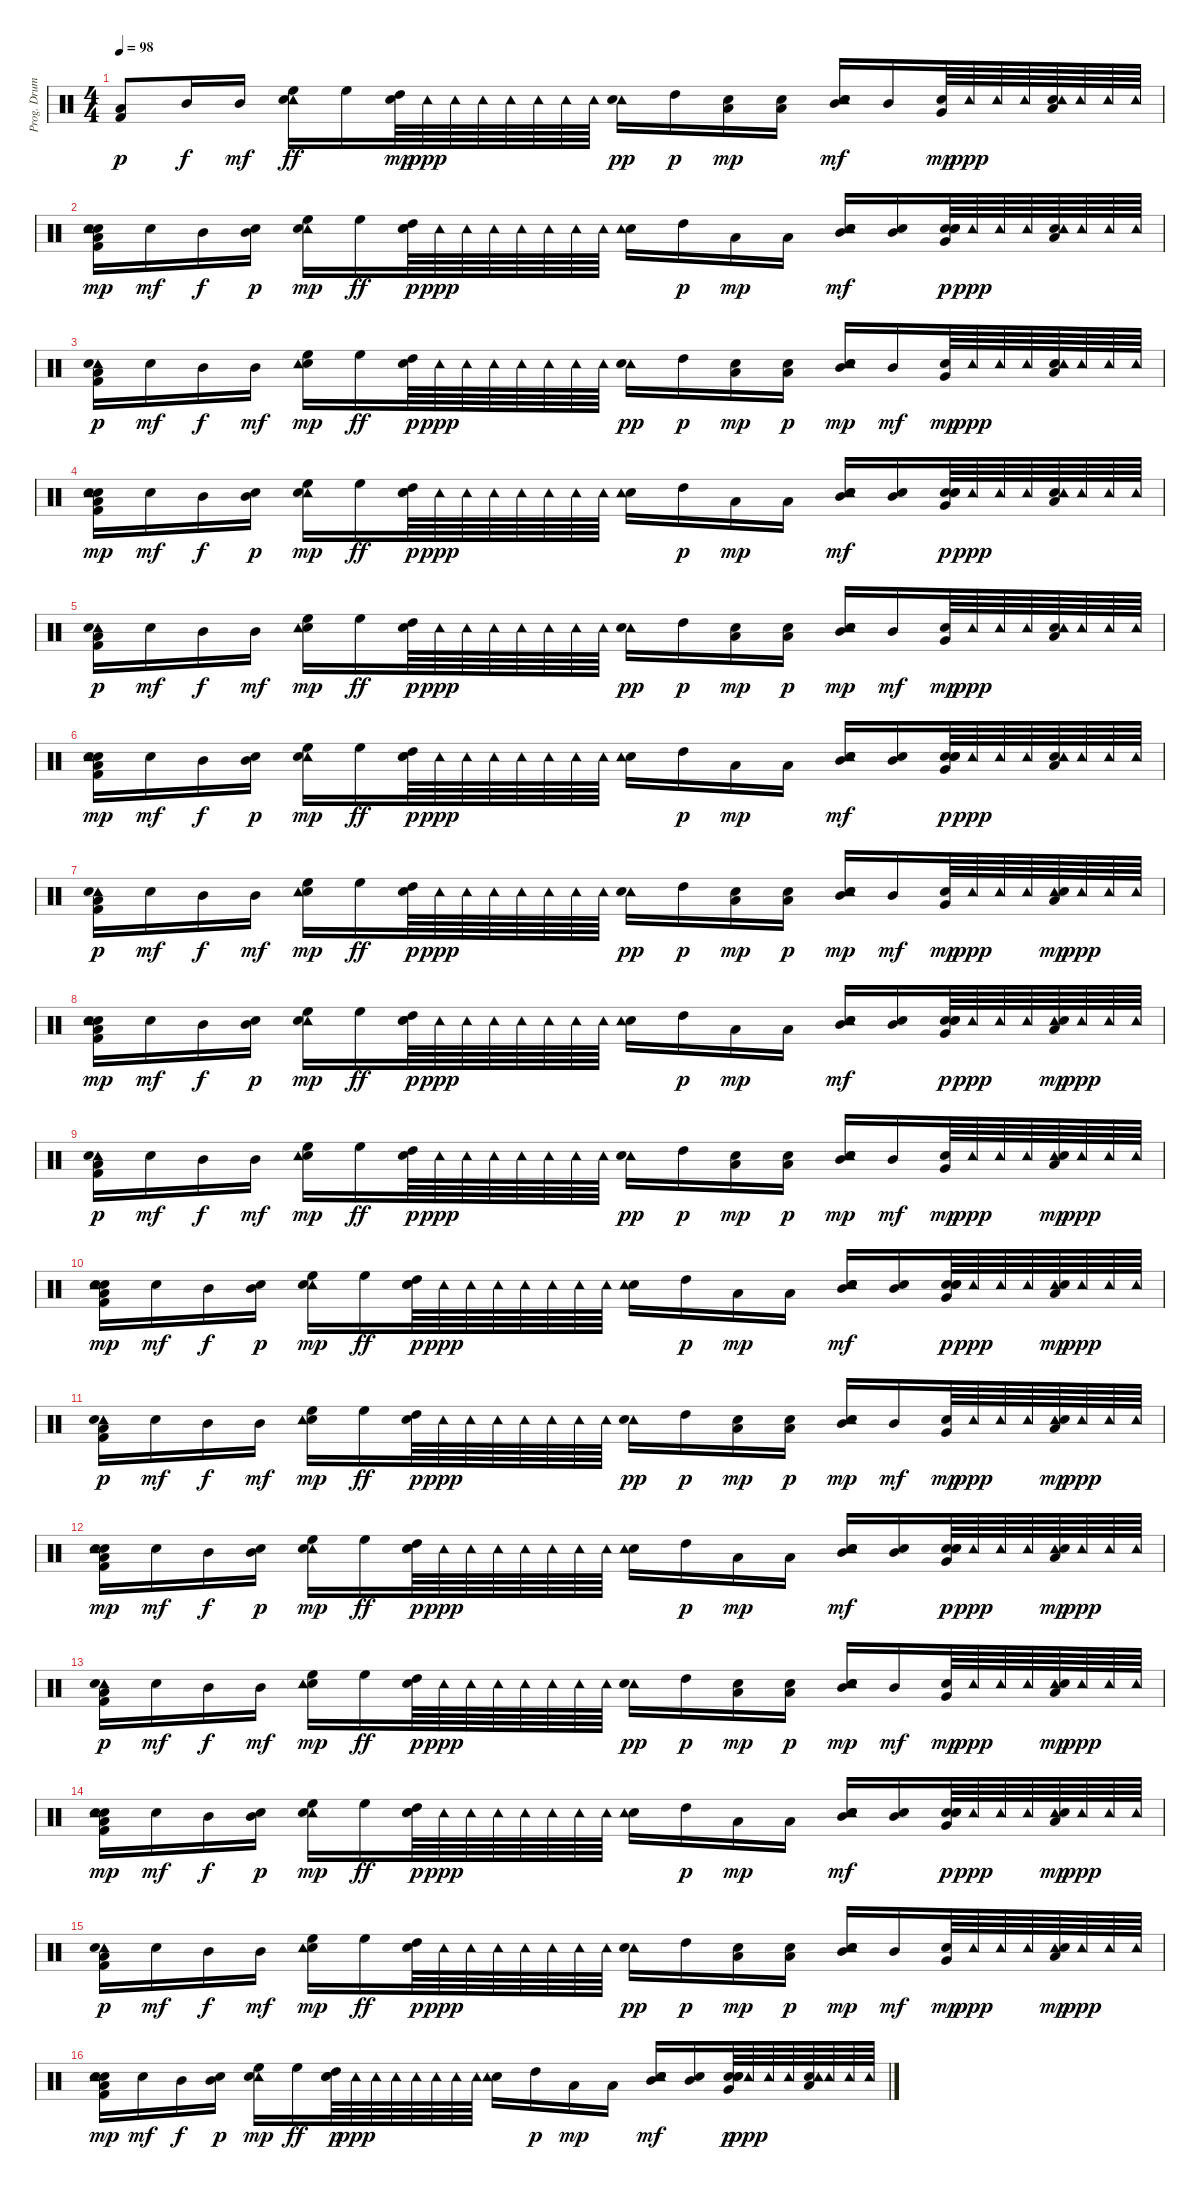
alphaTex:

\track ("Prog. Drums" "Prog. Drum") {instrument percussion}
\staff {score}
\articulation defaults
\ts (4 4)
\tempo 98
\clef neutral
\ks c
("Low Floor Tom (hit)" "Kick (hit) 2").8{dy p volume 12 balance 8} "Mid Tom (hit)".16{dy f} "Mid Tom (hit)".16{dy mf} ("Tambourine (hit)" "Snare (hit) 2" "High Floor Tom (hit)").16{dy ff} "High Floor Tom (hit)".16 ("Snare (hit)" "High Tom (hit)").64{dy mp} "Tambourine (hit)".64{dy ppp} "Tambourine (hit)".64 "Tambourine (hit)".64 "Tambourine (hit)".64 "Tambourine (hit)".64 "Tambourine (hit)".64 "Tambourine (hit)".64 ("Tambourine (hit)" "Snare (hit) 2").16{dy pp} "High Tom (hit)".16{dy p} ("Snare (hit)" "Low Tom (hit)").16{dy mp} ("Snare (hit)" "Low Tom (hit)").16 ("Snare (hit)" "Snare (hit) 2" "Tambourine (hit)" "Mid Tom (hit)").16{dy mf} "Mid Tom (hit)".16 ("Snare (hit)" "Very Low Tom (hit)").64{dy mp} "Tambourine (hit)".64{dy ppp} "Tambourine (hit)".64 "Tambourine (hit)".64 ("Low Tom (hit)" "Snare (hit) 2" "Tambourine (hit)").64 "Tambourine (hit)".64 "Tambourine (hit)".64 "Tambourine (hit)".64 |
("Snare (hit)" "Snare (hit)" "Tambourine (hit)" "Kick (hit) 2" "Low Floor Tom (hit)").16{dy mp} "Snare (hit)".16{dy mf} "Mid Tom (hit)".16{dy f} ("Mid Tom (hit)" "Snare (hit)").16{dy p} ("Tambourine (hit)" "High Floor Tom (hit)" "Snare (hit) 2").16{dy mp} "High Floor Tom (hit)".16{dy ff} ("High Tom (hit)" "Snare (hit)" "Snare (hit)").64{dy p} "Tambourine (hit)".64{dy ppp} "Tambourine (hit)".64 "Tambourine (hit)".64 "Tambourine (hit)".64 "Tambourine (hit)".64 "Tambourine (hit)".64 "Tambourine (hit)".64 ("Snare (hit) 2" "Tambourine (hit)").16 "High Tom (hit)".16{dy p} "Low Tom (hit)".16{dy mp} "Low Tom (hit)".16 ("Tambourine (hit)" "Snare (hit)" "Snare (hit) 2" "Mid Tom (hit)").16{dy mf} ("Snare (hit) 2" "Mid Tom (hit)").16 ("Snare (hit) 2" "Very Low Tom (hit)" "Snare (hit)" "Snare (hit)").64{dy p} "Tambourine (hit)".64{dy ppp} "Tambourine (hit)".64 "Tambourine (hit)".64 ("Snare (hit) 2" "Low Tom (hit)" "Tambourine (hit)").64 "Tambourine (hit)".64 "Tambourine (hit)".64 "Tambourine (hit)".64 |
("Tambourine (hit)" "Snare (hit)" "Low Floor Tom (hit)" "Kick (hit) 2").16{dy p} "Snare (hit)".16{dy mf} "Mid Tom (hit)".16{dy f} "Mid Tom (hit)".16{dy mf} ("Snare (hit) 2" "High Floor Tom (hit)" "Tambourine (hit)").16{dy mp} "High Floor Tom (hit)".16{dy ff} ("High Tom (hit)" "Snare (hit)").64{dy p} "Tambourine (hit)".64{dy ppp} "Tambourine (hit)".64 "Tambourine (hit)".64 "Tambourine (hit)".64 "Tambourine (hit)".64 "Tambourine (hit)".64 "Tambourine (hit)".64 ("Tambourine (hit)" "Snare (hit) 2").16{dy pp} "High Tom (hit)".16{dy p} ("Snare (hit)" "Low Tom (hit)").16{dy mp} ("Low Tom (hit)" "Snare (hit)").16{dy p} ("Snare (hit) 2" "Mid Tom (hit)" "Snare (hit)" "Tambourine (hit)").16{dy mp} "Mid Tom (hit)".16{dy mf} ("Snare (hit)" "Very Low Tom (hit)").64{dy mp} "Tambourine (hit)".64{dy ppp} "Tambourine (hit)".64 "Tambourine (hit)".64 ("Snare (hit) 2" "Low Tom (hit)" "Tambourine (hit)").64 "Tambourine (hit)".64 "Tambourine (hit)".64 "Tambourine (hit)".64 |
("Snare (hit)" "Snare (hit)" "Tambourine (hit)" "Kick (hit) 2" "Low Floor Tom (hit)").16{dy mp} "Snare (hit)".16{dy mf} "Mid Tom (hit)".16{dy f} ("Mid Tom (hit)" "Snare (hit)").16{dy p} ("Tambourine (hit)" "High Floor Tom (hit)" "Snare (hit) 2").16{dy mp} "High Floor Tom (hit)".16{dy ff} ("High Tom (hit)" "Snare (hit)" "Snare (hit)").64{dy p} "Tambourine (hit)".64{dy ppp} "Tambourine (hit)".64 "Tambourine (hit)".64 "Tambourine (hit)".64 "Tambourine (hit)".64 "Tambourine (hit)".64 "Tambourine (hit)".64 ("Snare (hit) 2" "Tambourine (hit)").16 "High Tom (hit)".16{dy p} "Low Tom (hit)".16{dy mp} "Low Tom (hit)".16 ("Tambourine (hit)" "Snare (hit)" "Snare (hit) 2" "Mid Tom (hit)").16{dy mf} ("Snare (hit) 2" "Mid Tom (hit)").16 ("Snare (hit) 2" "Very Low Tom (hit)" "Snare (hit)" "Snare (hit)").64{dy p} "Tambourine (hit)".64{dy ppp} "Tambourine (hit)".64 "Tambourine (hit)".64 ("Snare (hit) 2" "Low Tom (hit)" "Tambourine (hit)").64 "Tambourine (hit)".64 "Tambourine (hit)".64 "Tambourine (hit)".64 |
("Tambourine (hit)" "Snare (hit)" "Low Floor Tom (hit)" "Kick (hit) 2").16{dy p} "Snare (hit)".16{dy mf} "Mid Tom (hit)".16{dy f} "Mid Tom (hit)".16{dy mf} ("Snare (hit) 2" "High Floor Tom (hit)" "Tambourine (hit)").16{dy mp} "High Floor Tom (hit)".16{dy ff} ("High Tom (hit)" "Snare (hit)").64{dy p} "Tambourine (hit)".64{dy ppp} "Tambourine (hit)".64 "Tambourine (hit)".64 "Tambourine (hit)".64 "Tambourine (hit)".64 "Tambourine (hit)".64 "Tambourine (hit)".64 ("Tambourine (hit)" "Snare (hit) 2").16{dy pp} "High Tom (hit)".16{dy p} ("Snare (hit)" "Low Tom (hit)").16{dy mp} ("Low Tom (hit)" "Snare (hit)").16{dy p} ("Snare (hit) 2" "Mid Tom (hit)" "Snare (hit)" "Tambourine (hit)").16{dy mp} "Mid Tom (hit)".16{dy mf} ("Snare (hit)" "Very Low Tom (hit)").64{dy mp} "Tambourine (hit)".64{dy ppp} "Tambourine (hit)".64 "Tambourine (hit)".64 ("Snare (hit) 2" "Low Tom (hit)" "Tambourine (hit)").64 "Tambourine (hit)".64 "Tambourine (hit)".64 "Tambourine (hit)".64 |
("Snare (hit)" "Snare (hit)" "Tambourine (hit)" "Kick (hit) 2" "Low Floor Tom (hit)").16{dy mp} "Snare (hit)".16{dy mf} "Mid Tom (hit)".16{dy f} ("Mid Tom (hit)" "Snare (hit)").16{dy p} ("Tambourine (hit)" "High Floor Tom (hit)" "Snare (hit) 2").16{dy mp} "High Floor Tom (hit)".16{dy ff} ("High Tom (hit)" "Snare (hit)" "Snare (hit)").64{dy p} "Tambourine (hit)".64{dy ppp} "Tambourine (hit)".64 "Tambourine (hit)".64 "Tambourine (hit)".64 "Tambourine (hit)".64 "Tambourine (hit)".64 "Tambourine (hit)".64 ("Snare (hit) 2" "Tambourine (hit)").16 "High Tom (hit)".16{dy p} "Low Tom (hit)".16{dy mp} "Low Tom (hit)".16 ("Tambourine (hit)" "Snare (hit)" "Snare (hit) 2" "Mid Tom (hit)").16{dy mf} ("Snare (hit) 2" "Mid Tom (hit)").16 ("Snare (hit) 2" "Very Low Tom (hit)" "Snare (hit)" "Snare (hit)").64{dy p} "Tambourine (hit)".64{dy ppp} "Tambourine (hit)".64 "Tambourine (hit)".64 ("Snare (hit) 2" "Low Tom (hit)" "Tambourine (hit)").64 "Tambourine (hit)".64 "Tambourine (hit)".64 "Tambourine (hit)".64 |
("Tambourine (hit)" "Snare (hit)" "Low Floor Tom (hit)" "Kick (hit) 2").16{dy p} "Snare (hit)".16{dy mf} "Mid Tom (hit)".16{dy f} "Mid Tom (hit)".16{dy mf} ("Snare (hit) 2" "High Floor Tom (hit)" "Tambourine (hit)").16{dy mp} "High Floor Tom (hit)".16{dy ff} ("High Tom (hit)" "Snare (hit)").64{dy p} "Tambourine (hit)".64{dy ppp} "Tambourine (hit)".64 "Tambourine (hit)".64 "Tambourine (hit)".64 "Tambourine (hit)".64 "Tambourine (hit)".64 "Tambourine (hit)".64 ("Tambourine (hit)" "Snare (hit) 2").16{dy pp} "High Tom (hit)".16{dy p} ("Snare (hit)" "Low Tom (hit)").16{dy mp} ("Low Tom (hit)" "Snare (hit)").16{dy p} ("Snare (hit) 2" "Mid Tom (hit)" "Snare (hit)" "Tambourine (hit)").16{dy mp} "Mid Tom (hit)".16{dy mf} ("Snare (hit)" "Very Low Tom (hit)").64{dy mp} "Tambourine (hit)".64{dy ppp} "Tambourine (hit)".64 "Tambourine (hit)".64 ("Tambourine (hit)" "Snare (hit) 2" "Low Tom (hit)").64{dy mp} "Tambourine (hit)".64{dy ppp} "Tambourine (hit)".64 "Tambourine (hit)".64 |
("Snare (hit)" "Snare (hit)" "Tambourine (hit)" "Kick (hit) 2" "Low Floor Tom (hit)").16{dy mp} "Snare (hit)".16{dy mf} "Mid Tom (hit)".16{dy f} ("Mid Tom (hit)" "Snare (hit)").16{dy p} ("Tambourine (hit)" "High Floor Tom (hit)" "Snare (hit) 2").16{dy mp} "High Floor Tom (hit)".16{dy ff} ("High Tom (hit)" "Snare (hit)" "Snare (hit)").64{dy p} "Tambourine (hit)".64{dy ppp} "Tambourine (hit)".64 "Tambourine (hit)".64 "Tambourine (hit)".64 "Tambourine (hit)".64 "Tambourine (hit)".64 "Tambourine (hit)".64 ("Snare (hit) 2" "Tambourine (hit)").16 "High Tom (hit)".16{dy p} "Low Tom (hit)".16{dy mp} "Low Tom (hit)".16 ("Tambourine (hit)" "Snare (hit)" "Snare (hit) 2" "Mid Tom (hit)").16{dy mf} ("Snare (hit) 2" "Mid Tom (hit)").16 ("Snare (hit) 2" "Very Low Tom (hit)" "Snare (hit)" "Snare (hit)").64{dy p} "Tambourine (hit)".64{dy ppp} "Tambourine (hit)".64 "Tambourine (hit)".64 ("Tambourine (hit)" "Snare (hit) 2" "Low Tom (hit)").64{dy mp} "Tambourine (hit)".64{dy ppp} "Tambourine (hit)".64 "Tambourine (hit)".64 |
("Tambourine (hit)" "Snare (hit)" "Low Floor Tom (hit)" "Kick (hit) 2").16{dy p} "Snare (hit)".16{dy mf} "Mid Tom (hit)".16{dy f} "Mid Tom (hit)".16{dy mf} ("Snare (hit) 2" "High Floor Tom (hit)" "Tambourine (hit)").16{dy mp} "High Floor Tom (hit)".16{dy ff} ("High Tom (hit)" "Snare (hit)").64{dy p} "Tambourine (hit)".64{dy ppp} "Tambourine (hit)".64 "Tambourine (hit)".64 "Tambourine (hit)".64 "Tambourine (hit)".64 "Tambourine (hit)".64 "Tambourine (hit)".64 ("Tambourine (hit)" "Snare (hit) 2").16{dy pp} "High Tom (hit)".16{dy p} ("Snare (hit)" "Low Tom (hit)").16{dy mp} ("Low Tom (hit)" "Snare (hit)").16{dy p} ("Snare (hit) 2" "Mid Tom (hit)" "Snare (hit)" "Tambourine (hit)").16{dy mp} "Mid Tom (hit)".16{dy mf} ("Snare (hit)" "Very Low Tom (hit)").64{dy mp} "Tambourine (hit)".64{dy ppp} "Tambourine (hit)".64 "Tambourine (hit)".64 ("Tambourine (hit)" "Snare (hit) 2" "Low Tom (hit)").64{dy mp} "Tambourine (hit)".64{dy ppp} "Tambourine (hit)".64 "Tambourine (hit)".64 |
("Snare (hit)" "Snare (hit)" "Tambourine (hit)" "Kick (hit) 2" "Low Floor Tom (hit)").16{dy mp} "Snare (hit)".16{dy mf} "Mid Tom (hit)".16{dy f} ("Mid Tom (hit)" "Snare (hit)").16{dy p} ("Tambourine (hit)" "High Floor Tom (hit)" "Snare (hit) 2").16{dy mp} "High Floor Tom (hit)".16{dy ff} ("High Tom (hit)" "Snare (hit)" "Snare (hit)").64{dy p} "Tambourine (hit)".64{dy ppp} "Tambourine (hit)".64 "Tambourine (hit)".64 "Tambourine (hit)".64 "Tambourine (hit)".64 "Tambourine (hit)".64 "Tambourine (hit)".64 ("Snare (hit) 2" "Tambourine (hit)").16 "High Tom (hit)".16{dy p} "Low Tom (hit)".16{dy mp} "Low Tom (hit)".16 ("Tambourine (hit)" "Snare (hit)" "Snare (hit) 2" "Mid Tom (hit)").16{dy mf} ("Snare (hit) 2" "Mid Tom (hit)").16 ("Snare (hit) 2" "Very Low Tom (hit)" "Snare (hit)" "Snare (hit)").64{dy p} "Tambourine (hit)".64{dy ppp} "Tambourine (hit)".64 "Tambourine (hit)".64 ("Tambourine (hit)" "Snare (hit) 2" "Low Tom (hit)").64{dy mp} "Tambourine (hit)".64{dy ppp} "Tambourine (hit)".64 "Tambourine (hit)".64 |
("Tambourine (hit)" "Snare (hit)" "Low Floor Tom (hit)" "Kick (hit) 2").16{dy p} "Snare (hit)".16{dy mf} "Mid Tom (hit)".16{dy f} "Mid Tom (hit)".16{dy mf} ("Snare (hit) 2" "High Floor Tom (hit)" "Tambourine (hit)").16{dy mp} "High Floor Tom (hit)".16{dy ff} ("High Tom (hit)" "Snare (hit)").64{dy p} "Tambourine (hit)".64{dy ppp} "Tambourine (hit)".64 "Tambourine (hit)".64 "Tambourine (hit)".64 "Tambourine (hit)".64 "Tambourine (hit)".64 "Tambourine (hit)".64 ("Tambourine (hit)" "Snare (hit) 2").16{dy pp} "High Tom (hit)".16{dy p} ("Snare (hit)" "Low Tom (hit)").16{dy mp} ("Low Tom (hit)" "Snare (hit)").16{dy p} ("Snare (hit) 2" "Mid Tom (hit)" "Snare (hit)" "Tambourine (hit)").16{dy mp} "Mid Tom (hit)".16{dy mf} ("Snare (hit)" "Very Low Tom (hit)").64{dy mp} "Tambourine (hit)".64{dy ppp} "Tambourine (hit)".64 "Tambourine (hit)".64 ("Tambourine (hit)" "Snare (hit) 2" "Low Tom (hit)").64{dy mp} "Tambourine (hit)".64{dy ppp} "Tambourine (hit)".64 "Tambourine (hit)".64 |
("Snare (hit)" "Snare (hit)" "Tambourine (hit)" "Kick (hit) 2" "Low Floor Tom (hit)").16{dy mp} "Snare (hit)".16{dy mf} "Mid Tom (hit)".16{dy f} ("Mid Tom (hit)" "Snare (hit)").16{dy p} ("Tambourine (hit)" "High Floor Tom (hit)" "Snare (hit) 2").16{dy mp} "High Floor Tom (hit)".16{dy ff} ("High Tom (hit)" "Snare (hit)" "Snare (hit)").64{dy p} "Tambourine (hit)".64{dy ppp} "Tambourine (hit)".64 "Tambourine (hit)".64 "Tambourine (hit)".64 "Tambourine (hit)".64 "Tambourine (hit)".64 "Tambourine (hit)".64 ("Snare (hit) 2" "Tambourine (hit)").16 "High Tom (hit)".16{dy p} "Low Tom (hit)".16{dy mp} "Low Tom (hit)".16 ("Tambourine (hit)" "Snare (hit)" "Snare (hit) 2" "Mid Tom (hit)").16{dy mf} ("Snare (hit) 2" "Mid Tom (hit)").16 ("Snare (hit) 2" "Very Low Tom (hit)" "Snare (hit)" "Snare (hit)").64{dy p} "Tambourine (hit)".64{dy ppp} "Tambourine (hit)".64 "Tambourine (hit)".64 ("Tambourine (hit)" "Snare (hit) 2" "Low Tom (hit)").64{dy mp} "Tambourine (hit)".64{dy ppp} "Tambourine (hit)".64 "Tambourine (hit)".64 |
("Tambourine (hit)" "Snare (hit)" "Low Floor Tom (hit)" "Kick (hit) 2").16{dy p} "Snare (hit)".16{dy mf} "Mid Tom (hit)".16{dy f} "Mid Tom (hit)".16{dy mf} ("Snare (hit) 2" "High Floor Tom (hit)" "Tambourine (hit)").16{dy mp} "High Floor Tom (hit)".16{dy ff} ("High Tom (hit)" "Snare (hit)").64{dy p} "Tambourine (hit)".64{dy ppp} "Tambourine (hit)".64 "Tambourine (hit)".64 "Tambourine (hit)".64 "Tambourine (hit)".64 "Tambourine (hit)".64 "Tambourine (hit)".64 ("Tambourine (hit)" "Snare (hit) 2").16{dy pp} "High Tom (hit)".16{dy p} ("Snare (hit)" "Low Tom (hit)").16{dy mp} ("Low Tom (hit)" "Snare (hit)").16{dy p} ("Snare (hit) 2" "Mid Tom (hit)" "Snare (hit)" "Tambourine (hit)").16{dy mp} "Mid Tom (hit)".16{dy mf} ("Snare (hit)" "Very Low Tom (hit)").64{dy mp} "Tambourine (hit)".64{dy ppp} "Tambourine (hit)".64 "Tambourine (hit)".64 ("Tambourine (hit)" "Snare (hit) 2" "Low Tom (hit)").64{dy mp} "Tambourine (hit)".64{dy ppp} "Tambourine (hit)".64 "Tambourine (hit)".64 |
("Snare (hit)" "Snare (hit)" "Tambourine (hit)" "Kick (hit) 2" "Low Floor Tom (hit)").16{dy mp} "Snare (hit)".16{dy mf} "Mid Tom (hit)".16{dy f} ("Mid Tom (hit)" "Snare (hit)").16{dy p} ("Tambourine (hit)" "High Floor Tom (hit)" "Snare (hit) 2").16{dy mp} "High Floor Tom (hit)".16{dy ff} ("High Tom (hit)" "Snare (hit)" "Snare (hit)").64{dy p} "Tambourine (hit)".64{dy ppp} "Tambourine (hit)".64 "Tambourine (hit)".64 "Tambourine (hit)".64 "Tambourine (hit)".64 "Tambourine (hit)".64 "Tambourine (hit)".64 ("Snare (hit) 2" "Tambourine (hit)").16 "High Tom (hit)".16{dy p} "Low Tom (hit)".16{dy mp} "Low Tom (hit)".16 ("Tambourine (hit)" "Snare (hit)" "Snare (hit) 2" "Mid Tom (hit)").16{dy mf} ("Snare (hit) 2" "Mid Tom (hit)").16 ("Snare (hit) 2" "Very Low Tom (hit)" "Snare (hit)" "Snare (hit)").64{dy p} "Tambourine (hit)".64{dy ppp} "Tambourine (hit)".64 "Tambourine (hit)".64 ("Tambourine (hit)" "Snare (hit) 2" "Low Tom (hit)").64{dy mp} "Tambourine (hit)".64{dy ppp} "Tambourine (hit)".64 "Tambourine (hit)".64 |
("Tambourine (hit)" "Snare (hit)" "Low Floor Tom (hit)" "Kick (hit) 2").16{dy p} "Snare (hit)".16{dy mf} "Mid Tom (hit)".16{dy f} "Mid Tom (hit)".16{dy mf} ("Snare (hit) 2" "High Floor Tom (hit)" "Tambourine (hit)").16{dy mp} "High Floor Tom (hit)".16{dy ff} ("High Tom (hit)" "Snare (hit)").64{dy p} "Tambourine (hit)".64{dy ppp} "Tambourine (hit)".64 "Tambourine (hit)".64 "Tambourine (hit)".64 "Tambourine (hit)".64 "Tambourine (hit)".64 "Tambourine (hit)".64 ("Tambourine (hit)" "Snare (hit) 2").16{dy pp} "High Tom (hit)".16{dy p} ("Snare (hit)" "Low Tom (hit)").16{dy mp} ("Low Tom (hit)" "Snare (hit)").16{dy p} ("Snare (hit) 2" "Mid Tom (hit)" "Snare (hit)" "Tambourine (hit)").16{dy mp} "Mid Tom (hit)".16{dy mf} ("Snare (hit)" "Very Low Tom (hit)").64{dy mp} "Tambourine (hit)".64{dy ppp} "Tambourine (hit)".64 "Tambourine (hit)".64 ("Tambourine (hit)" "Snare (hit) 2" "Low Tom (hit)").64{dy mp} "Tambourine (hit)".64{dy ppp} "Tambourine (hit)".64 "Tambourine (hit)".64 |
("Snare (hit)" "Snare (hit)" "Tambourine (hit)" "Kick (hit) 2" "Low Floor Tom (hit)").16{dy mp} "Snare (hit)".16{dy mf} "Mid Tom (hit)".16{dy f} ("Mid Tom (hit)" "Snare (hit)").16{dy p} ("Tambourine (hit)" "High Floor Tom (hit)" "Snare (hit) 2").16{dy mp} "High Floor Tom (hit)".16{dy ff} ("High Tom (hit)" "Snare (hit)" "Snare (hit)").64{dy p} "Tambourine (hit)".64{dy ppp} "Tambourine (hit)".64 "Tambourine (hit)".64 "Tambourine (hit)".64 "Tambourine (hit)".64 "Tambourine (hit)".64 "Tambourine (hit)".64 ("Snare (hit) 2" "Tambourine (hit)").16 "High Tom (hit)".16{dy p} "Low Tom (hit)".16{dy mp} "Low Tom (hit)".16 ("Tambourine (hit)" "Snare (hit)" "Snare (hit) 2" "Mid Tom (hit)").16{dy mf} ("Snare (hit) 2" "Mid Tom (hit)").16 ("Snare (hit) 2" "Very Low Tom (hit)" "Snare (hit)" "Snare (hit)").64{dy p} "Tambourine (hit)".64{dy ppp} "Tambourine (hit)".64 "Tambourine (hit)".64 ("Snare (hit) 2" "Low Tom (hit)" "Tambourine (hit)").64 "Tambourine (hit)".64 "Tambourine (hit)".64 "Tambourine (hit)".64
